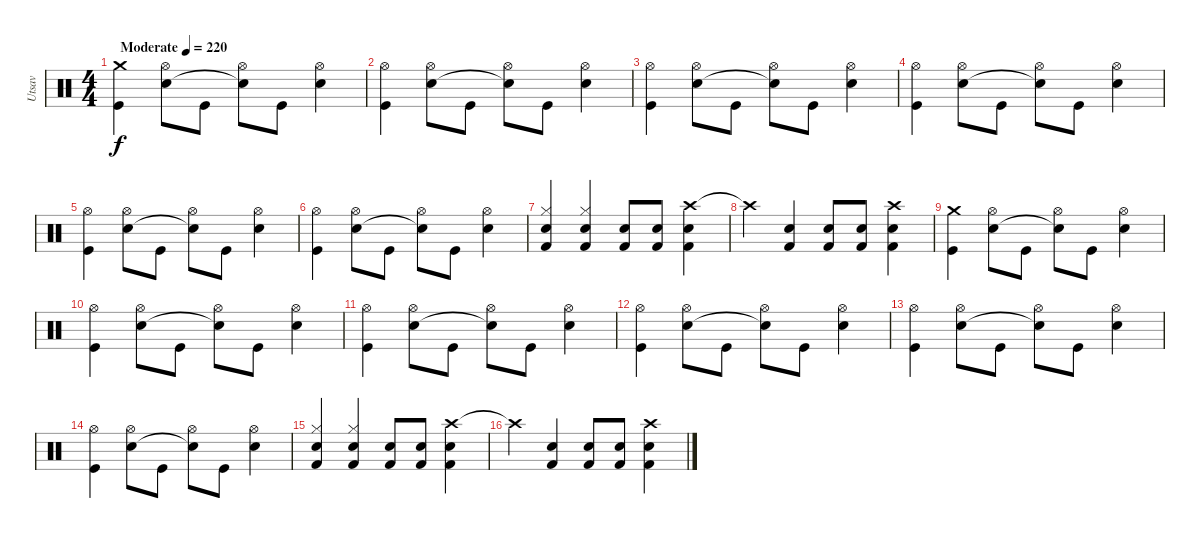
\track ("Utsav" "Utsav") {instrument percussion}
\staff {score}
\articulation defaults
\ts (4 4)
\tempo (220 "Moderate")
\clef neutral
\ks c
("Crash medium (hit)" "Kick (hit)").4{dy f} ("Hi-Hat (open)" "Electric Snare (hit)").8 "Kick (hit)".8 ("Hi-Hat (open)" "Snare (hit)"{t}).8 "Kick (hit)".8 ("Hi-Hat (open)" "Electric Snare (hit)").4 |
("Hi-Hat (open)" "Kick (hit)").4 ("Hi-Hat (open)" "Electric Snare (hit)").8 "Kick (hit)".8 ("Hi-Hat (open)" "Snare (hit)"{t}).8 "Kick (hit)".8 ("Hi-Hat (open)" "Electric Snare (hit)").4 |
("Hi-Hat (open)" "Kick (hit)").4 ("Hi-Hat (open)" "Electric Snare (hit)").8 "Kick (hit)".8 ("Hi-Hat (open)" "Snare (hit)"{t}).8 "Kick (hit)".8 ("Hi-Hat (open)" "Electric Snare (hit)").4 |
("Hi-Hat (open)" "Kick (hit)").4 ("Hi-Hat (open)" "Electric Snare (hit)").8 "Kick (hit)".8 ("Hi-Hat (open)" "Snare (hit)"{t}).8 "Kick (hit)".8 ("Hi-Hat (open)" "Electric Snare (hit)").4 |
("Hi-Hat (open)" "Kick (hit)").4 ("Hi-Hat (open)" "Electric Snare (hit)").8 "Kick (hit)".8 ("Hi-Hat (open)" "Snare (hit)"{t}).8 "Kick (hit)".8 ("Hi-Hat (open)" "Electric Snare (hit)").4 |
("Hi-Hat (open)" "Kick (hit)").4 ("Hi-Hat (open)" "Electric Snare (hit)").8 "Kick (hit)".8 ("Hi-Hat (open)" "Snare (hit)"{t}).8 "Kick (hit)".8 ("Hi-Hat (open)" "Electric Snare (hit)").4 |
("Snare (hit) 2" "Hi-Hat (closed)" "Kick (hit) 2").4 ("Snare (hit) 2" "Hi-Hat (closed)" "Kick (hit) 2").4 ("Snare (hit) 2" "Kick (hit) 2").8 ("Snare (hit) 2" "Kick (hit) 2").8 ("Crash high (hit)" "Snare (hit) 2" "Kick (hit) 2").4 |
"Crash high (hit)"{t}.4 ("Kick (hit) 2" "Snare (hit) 2").4 ("Kick (hit) 2" "Snare (hit) 2").8 ("Kick (hit) 2" "Snare (hit) 2").8 ("Crash high (hit)" "Kick (hit) 2" "Snare (hit) 2").4 |
("Crash medium (hit)" "Kick (hit)").4 ("Hi-Hat (open)" "Electric Snare (hit)").8 "Kick (hit)".8 ("Hi-Hat (open)" "Snare (hit)"{t}).8 "Kick (hit)".8 ("Hi-Hat (open)" "Electric Snare (hit)").4 |
("Hi-Hat (open)" "Kick (hit)").4 ("Hi-Hat (open)" "Electric Snare (hit)").8 "Kick (hit)".8 ("Hi-Hat (open)" "Snare (hit)"{t}).8 "Kick (hit)".8 ("Hi-Hat (open)" "Electric Snare (hit)").4 |
("Hi-Hat (open)" "Kick (hit)").4 ("Hi-Hat (open)" "Electric Snare (hit)").8 "Kick (hit)".8 ("Hi-Hat (open)" "Snare (hit)"{t}).8 "Kick (hit)".8 ("Hi-Hat (open)" "Electric Snare (hit)").4 |
("Hi-Hat (open)" "Kick (hit)").4 ("Hi-Hat (open)" "Electric Snare (hit)").8 "Kick (hit)".8 ("Hi-Hat (open)" "Snare (hit)"{t}).8 "Kick (hit)".8 ("Hi-Hat (open)" "Electric Snare (hit)").4 |
("Hi-Hat (open)" "Kick (hit)").4 ("Hi-Hat (open)" "Electric Snare (hit)").8 "Kick (hit)".8 ("Hi-Hat (open)" "Snare (hit)"{t}).8 "Kick (hit)".8 ("Hi-Hat (open)" "Electric Snare (hit)").4 |
("Hi-Hat (open)" "Kick (hit)").4 ("Hi-Hat (open)" "Electric Snare (hit)").8 "Kick (hit)".8 ("Hi-Hat (open)" "Snare (hit)"{t}).8 "Kick (hit)".8 ("Hi-Hat (open)" "Electric Snare (hit)").4 |
("Snare (hit) 2" "Hi-Hat (closed)" "Kick (hit) 2").4 ("Snare (hit) 2" "Hi-Hat (closed)" "Kick (hit) 2").4 ("Snare (hit) 2" "Kick (hit) 2").8 ("Snare (hit) 2" "Kick (hit) 2").8 ("Crash high (hit)" "Snare (hit) 2" "Kick (hit) 2").4 |
"Crash high (hit)"{t}.4 ("Kick (hit) 2" "Snare (hit) 2").4 ("Kick (hit) 2" "Snare (hit) 2").8 ("Kick (hit) 2" "Snare (hit) 2").8 ("Crash high (hit)" "Kick (hit) 2" "Snare (hit) 2").4
